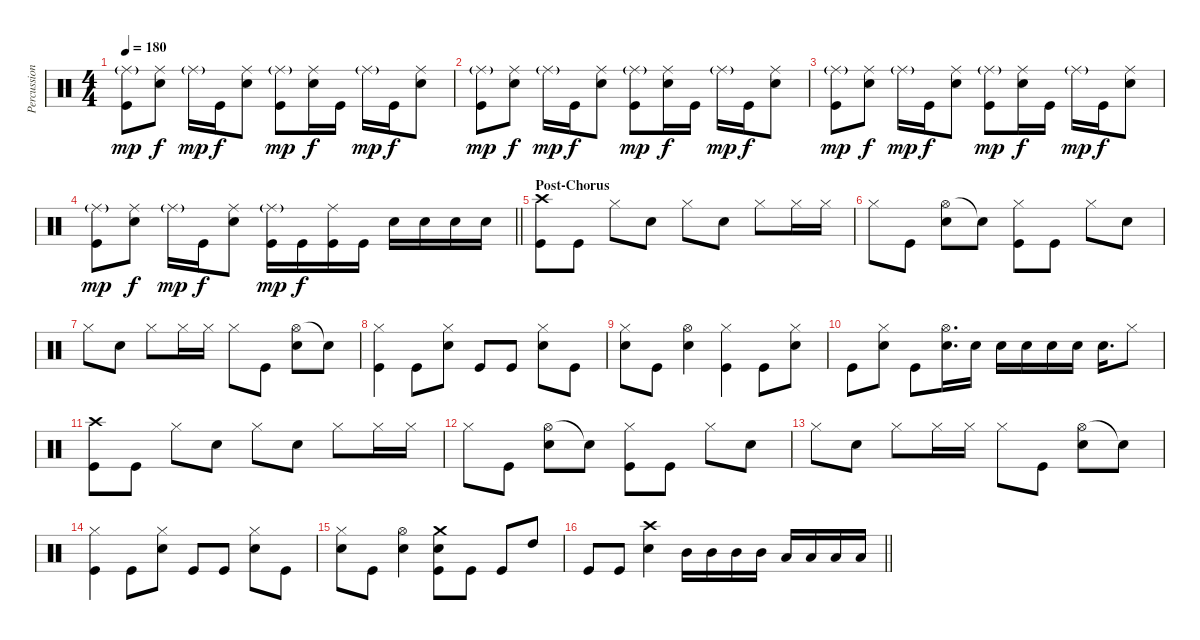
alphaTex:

\track ("Percussion" "Percussion") {instrument percussion}
\staff {score}
\articulation defaults
\ts (4 4)
\tempo 180
\clef neutral
\ks c
("Ride (middle)"{g} "Kick (hit)").8{dy mp} ("Ride (middle)" "Electric Snare (hit)").8{dy f} "Ride (middle)"{g}.16{dy mp} "Kick (hit)".16{dy f} ("Ride (middle)" "Electric Snare (hit)").8 ("Ride (middle)"{g} "Kick (hit)").8{dy mp} ("Ride (middle)" "Electric Snare (hit)").16{dy f} "Kick (hit)".16 "Ride (middle)"{g}.16{dy mp} "Kick (hit)".16{dy f} ("Ride (middle)" "Electric Snare (hit)").8 |
("Ride (middle)"{g} "Kick (hit)").8{dy mp} ("Ride (middle)" "Electric Snare (hit)").8{dy f} "Ride (middle)"{g}.16{dy mp} "Kick (hit)".16{dy f} ("Ride (middle)" "Electric Snare (hit)").8 ("Ride (middle)"{g} "Kick (hit)").8{dy mp} ("Ride (middle)" "Electric Snare (hit)").16{dy f} "Kick (hit)".16 "Ride (middle)"{g}.16{dy mp} "Kick (hit)".16{dy f} ("Ride (middle)" "Electric Snare (hit)").8 |
("Ride (middle)"{g} "Kick (hit)").8{dy mp} ("Ride (middle)" "Electric Snare (hit)").8{dy f} "Ride (middle)"{g}.16{dy mp} "Kick (hit)".16{dy f} ("Ride (middle)" "Electric Snare (hit)").8 ("Ride (middle)"{g} "Kick (hit)").8{dy mp} ("Ride (middle)" "Electric Snare (hit)").16{dy f} "Kick (hit)".16 "Ride (middle)"{g}.16{dy mp} "Kick (hit)".16{dy f} ("Ride (middle)" "Electric Snare (hit)").8 |
\barLineRight lightlight
("Ride (middle)"{g} "Kick (hit)").8{dy mp} ("Ride (middle)" "Electric Snare (hit)").8{dy f} "Ride (middle)"{g}.16{dy mp} "Kick (hit)".16{dy f} ("Ride (middle)" "Electric Snare (hit)").8 ("Ride (middle)"{g} "Kick (hit)").16{dy mp} "Kick (hit)".16{dy f} ("Ride (middle)" "Kick (hit)").16 "Kick (hit)".16 "Electric Snare (hit)".16 "Electric Snare (hit)".16 "Electric Snare (hit)".16 "Electric Snare (hit)".16 |
\section ("" "Post-Chorus")
("Crash high (hit)" "Kick (hit)").8 "Kick (hit)".8 "Hi-Hat (closed)".8 "Electric Snare (hit)".8 "Hi-Hat (closed)".8 "Electric Snare (hit)".8 "Hi-Hat (closed)".8 "Hi-Hat (closed)".16 "Hi-Hat (closed)".16 |
"Hi-Hat (closed)".8 "Kick (hit)".8 ("Hi-Hat (open)" "Electric Snare (hit)").8 "Snare (hit)"{t}.8 ("Hi-Hat (closed)" "Kick (hit)").8 "Kick (hit)".8 "Hi-Hat (closed)".8 "Electric Snare (hit)".8 |
"Hi-Hat (closed)".8 "Electric Snare (hit)".8 "Hi-Hat (closed)".8 "Hi-Hat (closed)".16 "Hi-Hat (closed)".16 "Hi-Hat (closed)".8 "Kick (hit)".8 ("Hi-Hat (open)" "Electric Snare (hit)").8 "Snare (hit)"{t}.8 |
("Hi-Hat (closed)" "Kick (hit)").4 "Kick (hit)".8 ("Hi-Hat (closed)" "Electric Snare (hit)").8 "Kick (hit)".8 "Kick (hit)".8 ("Hi-Hat (closed)" "Electric Snare (hit)").8 "Kick (hit)".8 |
("Hi-Hat (closed)" "Electric Snare (hit)").8 "Kick (hit)".8 ("Hi-Hat (open)" "Electric Snare (hit)").4 ("Hi-Hat (closed)" "Kick (hit)").4 "Kick (hit)".8 ("Hi-Hat (closed)" "Electric Snare (hit)").8 |
"Kick (hit)".8 ("Hi-Hat (closed)" "Electric Snare (hit)").8 "Kick (hit)".8 ("Hi-Hat (open)" "Electric Snare (hit)").16{d} "Electric Snare (hit)".16 "Electric Snare (hit)".16 "Electric Snare (hit)".16 "Electric Snare (hit)".16 "Electric Snare (hit)".16 "Electric Snare (hit)".16{d} "Hi-Hat (closed)".8 |
("Crash high (hit)" "Kick (hit)").8 "Kick (hit)".8 "Hi-Hat (closed)".8 "Electric Snare (hit)".8 "Hi-Hat (closed)".8 "Electric Snare (hit)".8 "Hi-Hat (closed)".8 "Hi-Hat (closed)".16 "Hi-Hat (closed)".16 |
"Hi-Hat (closed)".8 "Kick (hit)".8 ("Hi-Hat (open)" "Electric Snare (hit)").8 "Snare (hit)"{t}.8 ("Hi-Hat (closed)" "Kick (hit)").8 "Kick (hit)".8 "Hi-Hat (closed)".8 "Electric Snare (hit)".8 |
"Hi-Hat (closed)".8 "Electric Snare (hit)".8 "Hi-Hat (closed)".8 "Hi-Hat (closed)".16 "Hi-Hat (closed)".16 "Hi-Hat (closed)".8 "Kick (hit)".8 ("Hi-Hat (open)" "Electric Snare (hit)").8 "Snare (hit)"{t}.8 |
("Hi-Hat (closed)" "Kick (hit)").4 "Kick (hit)".8 ("Hi-Hat (closed)" "Electric Snare (hit)").8 "Kick (hit)".8 "Kick (hit)".8 ("Hi-Hat (closed)" "Electric Snare (hit)").8 "Kick (hit)".8 |
("Hi-Hat (closed)" "Electric Snare (hit)").8 "Kick (hit)".8 ("Hi-Hat (open)" "Electric Snare (hit)").4 ("Crash medium (hit)" "Electric Snare (hit)" "Kick (hit)").8 "Kick (hit)".8 "Kick (hit)".8 "High Tom (hit)".8 |
\barLineRight lightlight "Kick (hit)".8 "Kick (hit)".8
("Crash high (hit)" "Electric Snare (hit)").4 "Mid Tom (hit)".16 "Mid Tom (hit)".16 "Mid Tom (hit)".16 "Mid Tom (hit)".16 "Low Tom (hit)".16 "Low Tom (hit)".16 "Low Tom (hit)".16 "Low Tom (hit)".16
